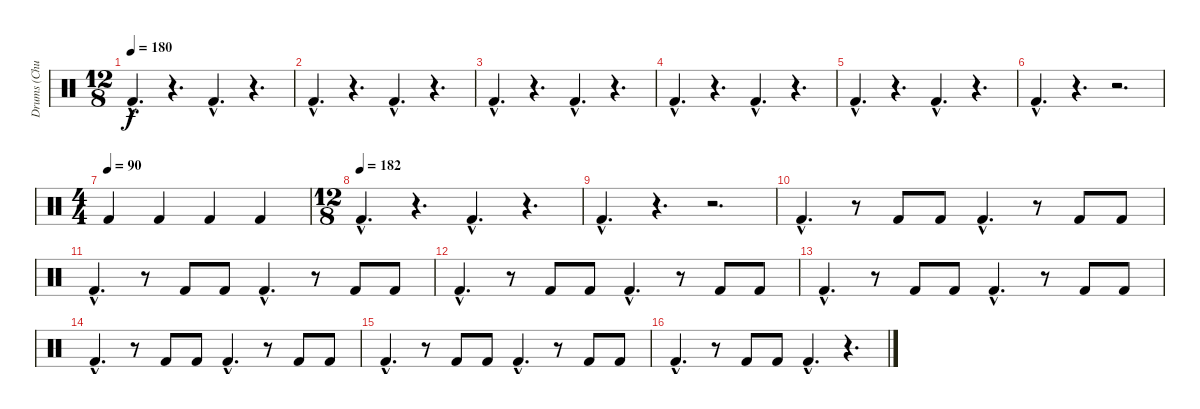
\track ("Drums (Chuck Behler)" "Drums (Chu") {instrument percussion}
\staff {score}
\articulation defaults
\ts (12 8)
\tempo 180
\tempo 182
\tempo 180
\clef neutral
\ks c "Kick (hit) 2"{hac}.4{d dy f}
r.4{d} "Kick (hit) 2"{hac}.4{d} r.4{d} |
"Kick (hit) 2"{hac}.4{d} r.4{d} "Kick (hit) 2"{hac}.4{d} r.4{d} |
"Kick (hit) 2"{hac}.4{d} r.4{d} "Kick (hit) 2"{hac}.4{d} r.4{d} |
"Kick (hit) 2"{hac}.4{d} r.4{d} "Kick (hit) 2"{hac}.4{d} r.4{d} |
"Kick (hit) 2"{hac}.4{d} r.4{d} "Kick (hit) 2"{hac}.4{d} r.4{d} |
"Kick (hit) 2"{hac}.4{d} r.4{d} r.2{d} |
\ts (4 4)
\tempo (90)
"Kick (hit) 2".4 "Kick (hit) 2".4 "Kick (hit) 2".4 "Kick (hit) 2".4 |
\ts (12 8)
\tempo (182)
"Kick (hit) 2"{hac}.4{d} r.4{d} "Kick (hit) 2"{hac}.4{d} r.4{d} |
"Kick (hit) 2"{hac}.4{d} r.4{d} r.2{d} |
"Kick (hit) 2"{hac}.4{d} r.8 "Kick (hit) 2".8 "Kick (hit) 2".8 "Kick (hit) 2"{hac}.4{d} r.8 "Kick (hit) 2".8 "Kick (hit) 2".8 |
"Kick (hit) 2"{hac}.4{d} r.8 "Kick (hit) 2".8 "Kick (hit) 2".8 "Kick (hit) 2"{hac}.4{d} r.8 "Kick (hit) 2".8 "Kick (hit) 2".8 |
"Kick (hit) 2"{hac}.4{d} r.8 "Kick (hit) 2".8 "Kick (hit) 2".8 "Kick (hit) 2"{hac}.4{d} r.8 "Kick (hit) 2".8 "Kick (hit) 2".8 |
"Kick (hit) 2"{hac}.4{d} r.8 "Kick (hit) 2".8 "Kick (hit) 2".8 "Kick (hit) 2"{hac}.4{d} r.8 "Kick (hit) 2".8 "Kick (hit) 2".8 |
"Kick (hit) 2"{hac}.4{d} r.8 "Kick (hit) 2".8 "Kick (hit) 2".8 "Kick (hit) 2"{hac}.4{d} r.8 "Kick (hit) 2".8 "Kick (hit) 2".8 |
"Kick (hit) 2"{hac}.4{d} r.8 "Kick (hit) 2".8 "Kick (hit) 2".8 "Kick (hit) 2"{hac}.4{d} r.8 "Kick (hit) 2".8 "Kick (hit) 2".8 |
"Kick (hit) 2"{hac}.4{d} r.8 "Kick (hit) 2".8 "Kick (hit) 2".8 "Kick (hit) 2"{hac}.4{d} r.4{d}
